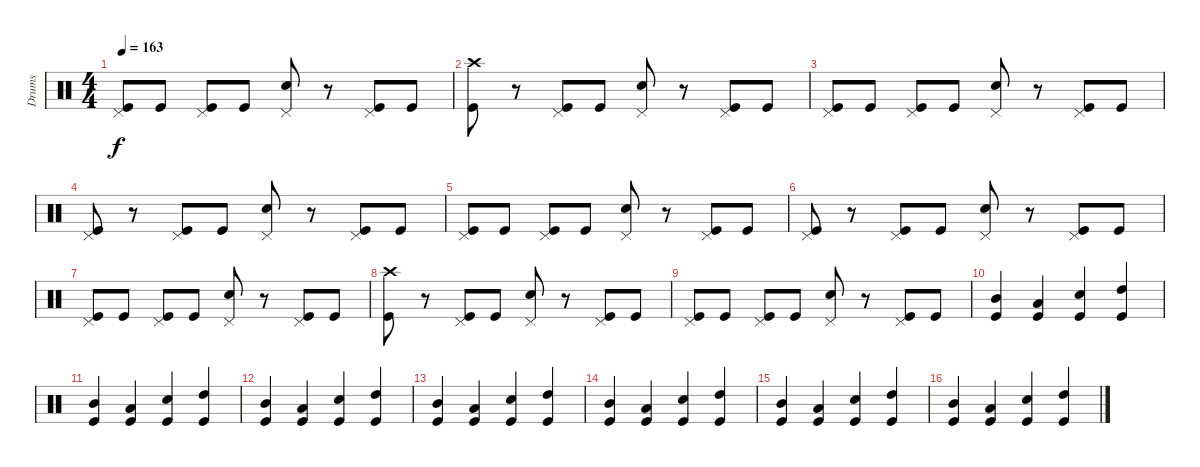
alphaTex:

\track ("Drums" "Drums") {instrument percussion}
\staff {score}
\articulation defaults
\ts (4 4)
\tempo 163
\clef neutral
\ks c
("Pedal Hi-Hat (hit)" "Kick (hit)").8{dy f} "Kick (hit)".8 ("Pedal Hi-Hat (hit)" "Kick (hit)").8 "Kick (hit)".8 ("Pedal Hi-Hat (hit)" "Snare (hit) 2").8 r.8 ("Pedal Hi-Hat (hit)" "Kick (hit)").8 "Kick (hit)".8 |
("Crash high (hit)" "Kick (hit)").8 r.8 ("Pedal Hi-Hat (hit)" "Kick (hit)").8 "Kick (hit)".8 ("Pedal Hi-Hat (hit)" "Snare (hit) 2").8 r.8 ("Pedal Hi-Hat (hit)" "Kick (hit)").8 "Kick (hit)".8 |
("Pedal Hi-Hat (hit)" "Kick (hit)").8 "Kick (hit)".8 ("Pedal Hi-Hat (hit)" "Kick (hit)").8 "Kick (hit)".8 ("Pedal Hi-Hat (hit)" "Snare (hit) 2").8 r.8 ("Pedal Hi-Hat (hit)" "Kick (hit)").8 "Kick (hit)".8 |
("Pedal Hi-Hat (hit)" "Kick (hit)").8 r.8 ("Pedal Hi-Hat (hit)" "Kick (hit)").8 "Kick (hit)".8 ("Pedal Hi-Hat (hit)" "Snare (hit) 2").8 r.8 ("Pedal Hi-Hat (hit)" "Kick (hit)").8 "Kick (hit)".8 |
("Pedal Hi-Hat (hit)" "Kick (hit)").8 "Kick (hit)".8 ("Pedal Hi-Hat (hit)" "Kick (hit)").8 "Kick (hit)".8 ("Pedal Hi-Hat (hit)" "Snare (hit) 2").8 r.8 ("Pedal Hi-Hat (hit)" "Kick (hit)").8 "Kick (hit)".8 |
("Pedal Hi-Hat (hit)" "Kick (hit)").8 r.8 ("Pedal Hi-Hat (hit)" "Kick (hit)").8 "Kick (hit)".8 ("Pedal Hi-Hat (hit)" "Snare (hit) 2").8 r.8 ("Pedal Hi-Hat (hit)" "Kick (hit)").8 "Kick (hit)".8 |
("Pedal Hi-Hat (hit)" "Kick (hit)").8 "Kick (hit)".8 ("Pedal Hi-Hat (hit)" "Kick (hit)").8 "Kick (hit)".8 ("Pedal Hi-Hat (hit)" "Snare (hit) 2").8 r.8 ("Pedal Hi-Hat (hit)" "Kick (hit)").8 "Kick (hit)".8 |
("Crash high (hit)" "Kick (hit)").8 r.8 ("Pedal Hi-Hat (hit)" "Kick (hit)").8 "Kick (hit)".8 ("Pedal Hi-Hat (hit)" "Snare (hit) 2").8 r.8 ("Pedal Hi-Hat (hit)" "Kick (hit)").8 "Kick (hit)".8 |
("Pedal Hi-Hat (hit)" "Kick (hit)").8 "Kick (hit)".8 ("Pedal Hi-Hat (hit)" "Kick (hit)").8 "Kick (hit)".8 ("Pedal Hi-Hat (hit)" "Snare (hit) 2").8 r.8 ("Pedal Hi-Hat (hit)" "Kick (hit)").8 "Kick (hit)".8 |
("Mid Tom (hit)" "Kick (hit)").4 ("Low Tom (hit)" "Kick (hit)").4 ("Kick (hit)" "Snare (hit) 2").4 ("High Tom (hit)" "Kick (hit)").4 |
("Mid Tom (hit)" "Kick (hit)").4 ("Low Tom (hit)" "Kick (hit)").4 ("Kick (hit)" "Snare (hit) 2").4 ("High Tom (hit)" "Kick (hit)").4 |
("Mid Tom (hit)" "Kick (hit)").4 ("Low Tom (hit)" "Kick (hit)").4 ("Kick (hit)" "Snare (hit) 2").4 ("High Tom (hit)" "Kick (hit)").4 |
("Mid Tom (hit)" "Kick (hit)").4 ("Low Tom (hit)" "Kick (hit)").4 ("Kick (hit)" "Snare (hit) 2").4 ("High Tom (hit)" "Kick (hit)").4 |
("Mid Tom (hit)" "Kick (hit)").4 ("Low Tom (hit)" "Kick (hit)").4 ("Kick (hit)" "Snare (hit) 2").4 ("High Tom (hit)" "Kick (hit)").4 |
("Mid Tom (hit)" "Kick (hit)").4 ("Low Tom (hit)" "Kick (hit)").4 ("Kick (hit)" "Snare (hit) 2").4 ("High Tom (hit)" "Kick (hit)").4 |
("Mid Tom (hit)" "Kick (hit)").4 ("Low Tom (hit)" "Kick (hit)").4 ("Kick (hit)" "Snare (hit) 2").4 ("High Tom (hit)" "Kick (hit)").4
